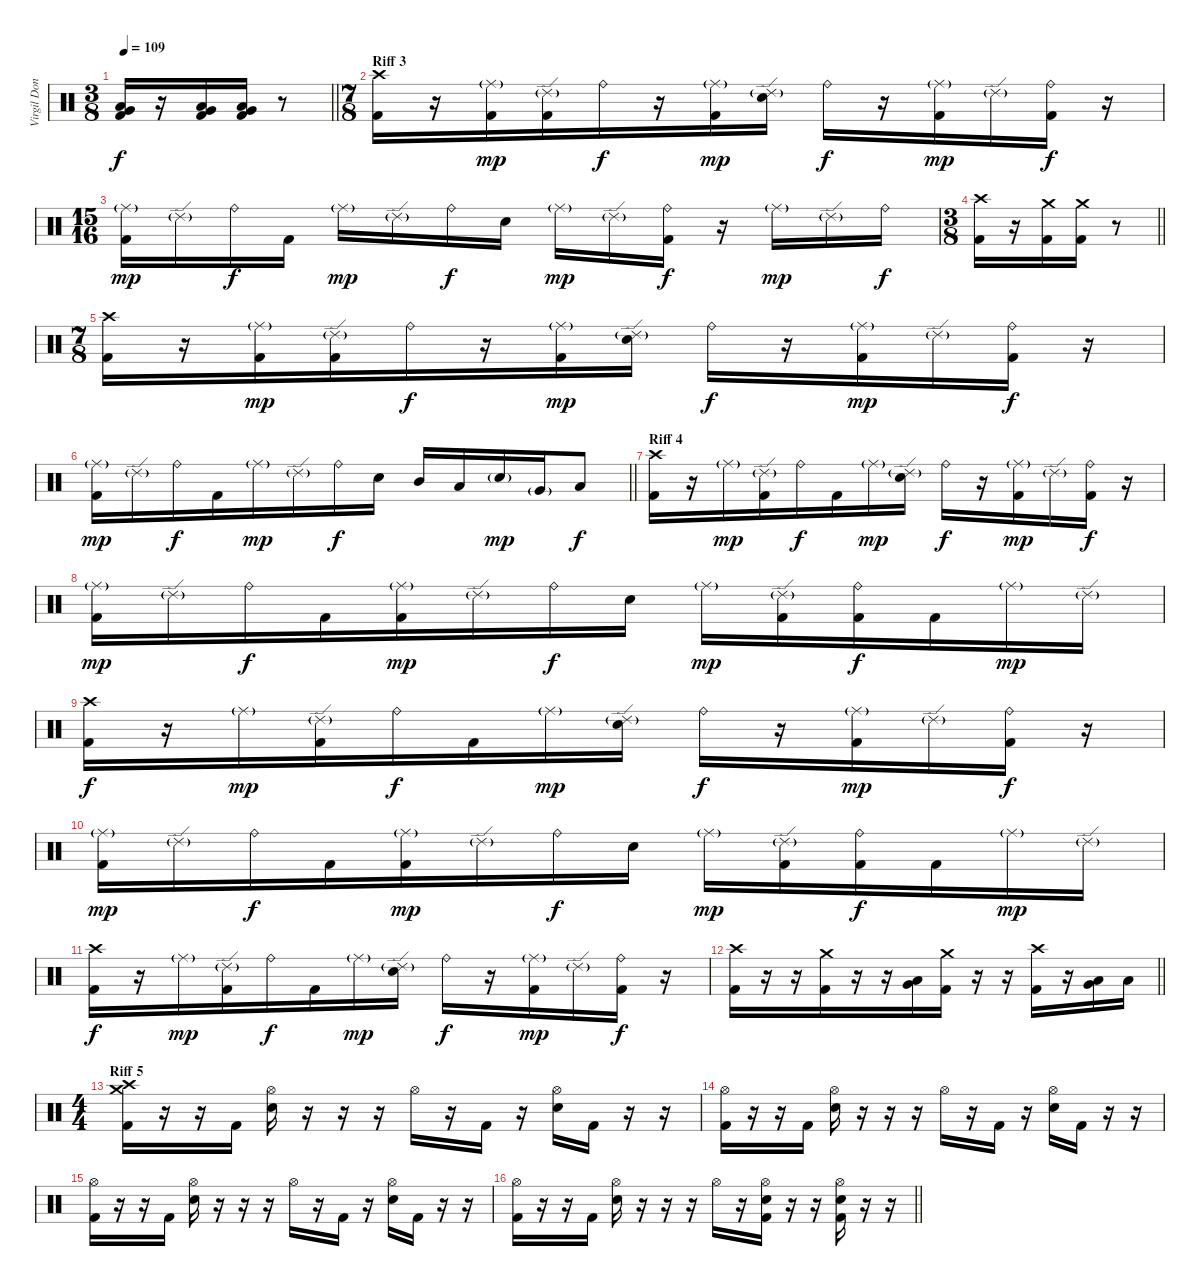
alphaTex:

\track ("Virgil Donati" "Virgil Don") {instrument percussion}
\staff {score}
\articulation defaults
\ts (3 8)
\tempo 109
\clef neutral
\barLineRight lightlight
\ks c
("Very Low Tom (hit)" "Low Floor Tom (hit)" "Kick (hit) 2").16{dy f} r.16 ("Very Low Tom (hit)" "Low Floor Tom (hit)" "Kick (hit) 2").16 ("Very Low Tom (hit)" "Low Floor Tom (hit)" "Kick (hit) 2").16 r.8 |
\ts (7 8)
\section ("" "Riff 3")
("Crash high (hit)" "Kick (hit) 2").16 r.16 ("Ride (middle)"{g} "Kick (hit) 2").16{dy mp} ("Ride (edge) 2"{g} "Kick (hit) 2").16 "Ride (bell)".16{dy f} r.16 ("Ride (middle)"{g} "Kick (hit) 2").16{dy mp} ("Ride (edge) 2"{g} "Electric Snare (hit)").16 "Ride (bell)".16{dy f} r.16 ("Ride (middle)"{g} "Kick (hit) 2").16{dy mp} "Ride (edge) 2"{g}.16 ("Ride (bell)" "Kick (hit) 2").16{dy f} r.16 |
\ts (15 16)
("Ride (middle)"{g} "Kick (hit) 2").16{dy mp} "Ride (edge) 2"{g}.16 "Ride (bell)".16{dy f} "Kick (hit) 2".16 "Ride (middle)"{g}.16{dy mp} "Ride (edge) 2"{g}.16 "Ride (bell)".16{dy f} "Electric Snare (hit)".16 "Ride (middle)"{g}.16{dy mp} "Ride (edge) 2"{g}.16 ("Ride (bell)" "Kick (hit) 2").16{dy f} r.16 "Ride (middle)"{g}.16{dy mp} "Ride (edge) 2"{g}.16 "Ride (bell)".16{dy f} |
\ts (3 8)
\barLineRight lightlight
("Crash high (hit)" "Kick (hit) 2").16 r.16 ("Crash medium (hit)" "Kick (hit) 2").16 ("Crash medium (hit)" "Kick (hit) 2").16 r.8 |
\ts (7 8)
("Crash high (hit)" "Kick (hit) 2").16 r.16 ("Ride (middle)"{g} "Kick (hit) 2").16{dy mp} ("Ride (edge) 2"{g} "Kick (hit) 2").16 "Ride (bell)".16{dy f} r.16 ("Ride (middle)"{g} "Kick (hit) 2").16{dy mp} ("Ride (edge) 2"{g} "Electric Snare (hit)").16 "Ride (bell)".16{dy f} r.16 ("Ride (middle)"{g} "Kick (hit) 2").16{dy mp} "Ride (edge) 2"{g}.16 ("Ride (bell)" "Kick (hit) 2").16{dy f} r.16 |
\barLineRight lightlight
("Ride (middle)"{g} "Kick (hit) 2").16{dy mp} "Ride (edge) 2"{g}.16 "Ride (bell)".16{dy f} "Kick (hit) 2".16 "Ride (middle)"{g}.16{dy mp} "Ride (edge) 2"{g}.16 "Ride (bell)".16{dy f} "Electric Snare (hit)".16 "Mid Tom (hit)".16 "Low Tom (hit)".16 "Electric Snare (hit)"{g}.16{dy mp} "Very Low Tom (hit)"{g}.16 "Low Floor Tom (hit)".8{dy f} |
\section ("" "Riff 4")
("Crash high (hit)" "Kick (hit) 2").16 r.16 "Ride (middle)"{g}.16{dy mp} ("Ride (edge) 2"{g} "Kick (hit) 2").16 "Ride (bell)".16{dy f} "Kick (hit) 2".16 "Ride (middle)"{g}.16{dy mp} ("Ride (edge) 2"{g} "Electric Snare (hit)").16 "Ride (bell)".16{dy f} r.16 ("Ride (middle)"{g} "Kick (hit) 2").16{dy mp} "Ride (edge) 2"{g}.16 ("Ride (bell)" "Kick (hit) 2").16{dy f} r.16 |
("Ride (middle)"{g} "Kick (hit) 2").16{dy mp} "Ride (edge) 2"{g}.16 "Ride (bell)".16{dy f} "Kick (hit) 2".16 ("Ride (middle)"{g} "Kick (hit) 2").16{dy mp} "Ride (edge) 2"{g}.16 "Ride (bell)".16{dy f} "Electric Snare (hit)".16 "Ride (middle)"{g}.16{dy mp} ("Ride (edge) 2"{g} "Kick (hit) 2").16 ("Ride (bell)" "Kick (hit) 2").16{dy f} "Kick (hit) 2".16 "Ride (middle)"{g}.16{dy mp} "Ride (edge) 2"{g}.16 |
("Crash high (hit)" "Kick (hit) 2").16{dy f} r.16 "Ride (middle)"{g}.16{dy mp} ("Ride (edge) 2"{g} "Kick (hit) 2").16 "Ride (bell)".16{dy f} "Kick (hit) 2".16 "Ride (middle)"{g}.16{dy mp} ("Ride (edge) 2"{g} "Electric Snare (hit)").16 "Ride (bell)".16{dy f} r.16 ("Ride (middle)"{g} "Kick (hit) 2").16{dy mp} "Ride (edge) 2"{g}.16 ("Ride (bell)" "Kick (hit) 2").16{dy f} r.16 |
("Ride (middle)"{g} "Kick (hit) 2").16{dy mp} "Ride (edge) 2"{g}.16 "Ride (bell)".16{dy f} "Kick (hit) 2".16 ("Ride (middle)"{g} "Kick (hit) 2").16{dy mp} "Ride (edge) 2"{g}.16 "Ride (bell)".16{dy f} "Electric Snare (hit)".16 "Ride (middle)"{g}.16{dy mp} ("Ride (edge) 2"{g} "Kick (hit) 2").16 ("Ride (bell)" "Kick (hit) 2").16{dy f} "Kick (hit) 2".16 "Ride (middle)"{g}.16{dy mp} "Ride (edge) 2"{g}.16 |
("Crash high (hit)" "Kick (hit) 2").16{dy f} r.16 "Ride (middle)"{g}.16{dy mp} ("Ride (edge) 2"{g} "Kick (hit) 2").16 "Ride (bell)".16{dy f} "Kick (hit) 2".16 "Ride (middle)"{g}.16{dy mp} ("Ride (edge) 2"{g} "Electric Snare (hit)").16 "Ride (bell)".16{dy f} r.16 ("Ride (middle)"{g} "Kick (hit) 2").16{dy mp} "Ride (edge) 2"{g}.16 ("Ride (bell)" "Kick (hit) 2").16{dy f} r.16 |
\barLineRight lightlight
("Crash high (hit)" "Kick (hit) 2").16 r.16 r.16 ("Crash medium (hit)" "Kick (hit) 2").16 r.16 r.16 ("Very Low Tom (hit)" "Low Floor Tom (hit)").16 ("Crash medium (hit)" "Kick (hit) 2").16 r.16 r.16 ("Crash high (hit)" "Kick (hit) 2").16 r.16 ("Very Low Tom (hit)" "Low Floor Tom (hit)").16 "Low Floor Tom (hit)".16 |
\ts (4 4)
\section ("" "Riff 5")
("Crash medium (hit)" "Crash high (hit)" "Kick (hit) 2").16 r.16 r.16 "Kick (hit) 2".16 ("Hi-Hat (open)" "Electric Snare (hit)").16 r.16 r.16 r.16 "Hi-Hat (open)".16 r.16 "Kick (hit) 2".16 r.16 ("Hi-Hat (open)" "Electric Snare (hit)").16 "Kick (hit) 2".16 r.16 r.16 |
("Hi-Hat (open)" "Kick (hit) 2").16 r.16 r.16 "Kick (hit) 2".16 ("Hi-Hat (open)" "Electric Snare (hit)").16 r.16 r.16 r.16 "Hi-Hat (open)".16 r.16 "Kick (hit) 2".16 r.16 ("Hi-Hat (open)" "Electric Snare (hit)").16 "Kick (hit) 2".16 r.16 r.16 |
("Hi-Hat (open)" "Kick (hit) 2").16 r.16 r.16 "Kick (hit) 2".16 ("Hi-Hat (open)" "Electric Snare (hit)").16 r.16 r.16 r.16 "Hi-Hat (open)".16 r.16 "Kick (hit) 2".16 r.16 ("Hi-Hat (open)" "Electric Snare (hit)").16 "Kick (hit) 2".16 r.16 r.16 |
\barLineRight lightlight
("Hi-Hat (open)" "Kick (hit) 2").16 r.16 r.16 "Kick (hit) 2".16 ("Hi-Hat (open)" "Electric Snare (hit)").16 r.16 r.16 r.16 "Hi-Hat (open)".16 r.16 ("Hi-Hat (open)" "Electric Snare (hit)" "Kick (hit) 2").16 r.16 r.16 ("Hi-Hat (open)" "Electric Snare (hit)" "Kick (hit) 2").16 r.16 r.16
